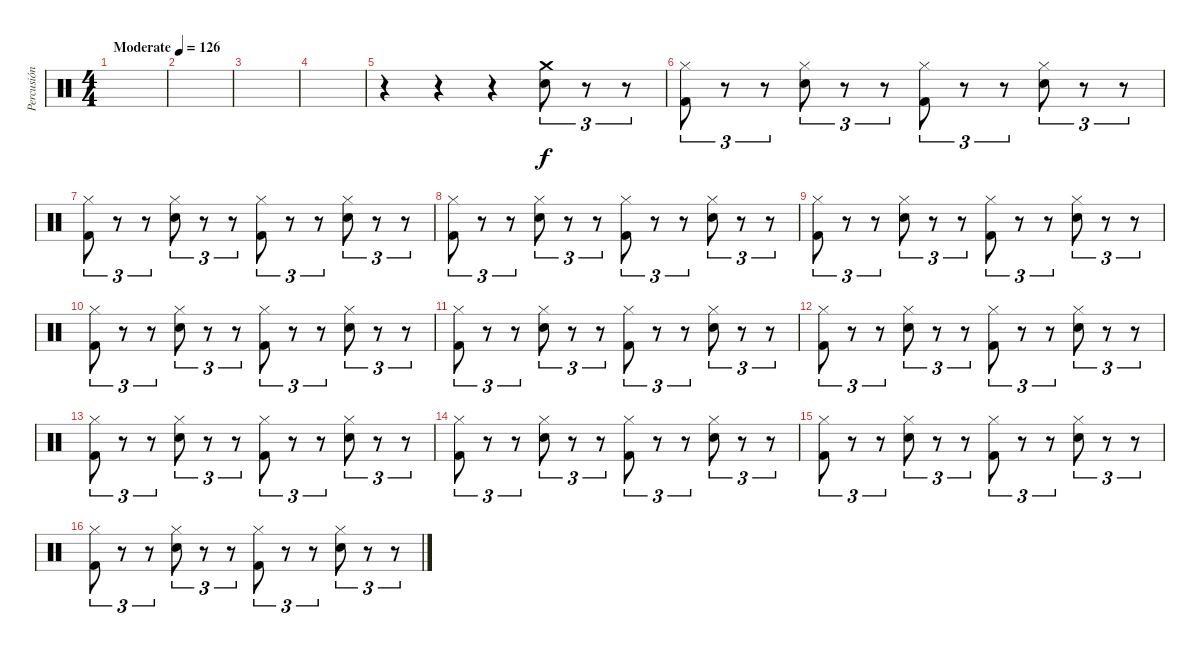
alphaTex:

\track ("Percusión" "Percusión") {instrument percussion}
\staff {score}
\articulation defaults
\ts (4 4)
\tempo (126 "Moderate")
\clef neutral
\ks c
|
|
|
|
r.4 r.4 r.4 ("Electric Snare (hit)" "Crash medium (hit)").8{tu (3 2)} r.8{tu (3 2)} r.8{tu (3 2)} |
("Hi-Hat (closed)" "Kick (hit) 2").8{tu (3 2)} r.8{tu (3 2)} r.8{tu (3 2)} ("Hi-Hat (closed)" "Electric Snare (hit)").8{tu (3 2)} r.8{tu (3 2)} r.8{tu (3 2)} ("Hi-Hat (closed)" "Kick (hit) 2").8{tu (3 2)} r.8{tu (3 2)} r.8{tu (3 2)} ("Hi-Hat (closed)" "Electric Snare (hit)").8{tu (3 2)} r.8{tu (3 2)} r.8{tu (3 2)} |
("Hi-Hat (closed)" "Kick (hit) 2").8{tu (3 2)} r.8{tu (3 2)} r.8{tu (3 2)} ("Hi-Hat (closed)" "Electric Snare (hit)").8{tu (3 2)} r.8{tu (3 2)} r.8{tu (3 2)} ("Hi-Hat (closed)" "Kick (hit) 2").8{tu (3 2)} r.8{tu (3 2)} r.8{tu (3 2)} ("Hi-Hat (closed)" "Electric Snare (hit)").8{tu (3 2)} r.8{tu (3 2)} r.8{tu (3 2)} |
("Hi-Hat (closed)" "Kick (hit) 2").8{tu (3 2)} r.8{tu (3 2)} r.8{tu (3 2)} ("Hi-Hat (closed)" "Electric Snare (hit)").8{tu (3 2)} r.8{tu (3 2)} r.8{tu (3 2)} ("Hi-Hat (closed)" "Kick (hit) 2").8{tu (3 2)} r.8{tu (3 2)} r.8{tu (3 2)} ("Hi-Hat (closed)" "Electric Snare (hit)").8{tu (3 2)} r.8{tu (3 2)} r.8{tu (3 2)} |
("Hi-Hat (closed)" "Kick (hit) 2").8{tu (3 2)} r.8{tu (3 2)} r.8{tu (3 2)} ("Hi-Hat (closed)" "Electric Snare (hit)").8{tu (3 2)} r.8{tu (3 2)} r.8{tu (3 2)} ("Hi-Hat (closed)" "Kick (hit) 2").8{tu (3 2)} r.8{tu (3 2)} r.8{tu (3 2)} ("Hi-Hat (closed)" "Electric Snare (hit)").8{tu (3 2)} r.8{tu (3 2)} r.8{tu (3 2)} |
("Hi-Hat (closed)" "Kick (hit) 2").8{tu (3 2)} r.8{tu (3 2)} r.8{tu (3 2)} ("Hi-Hat (closed)" "Electric Snare (hit)").8{tu (3 2)} r.8{tu (3 2)} r.8{tu (3 2)} ("Hi-Hat (closed)" "Kick (hit) 2").8{tu (3 2)} r.8{tu (3 2)} r.8{tu (3 2)} ("Hi-Hat (closed)" "Electric Snare (hit)").8{tu (3 2)} r.8{tu (3 2)} r.8{tu (3 2)} |
("Hi-Hat (closed)" "Kick (hit) 2").8{tu (3 2)} r.8{tu (3 2)} r.8{tu (3 2)} ("Hi-Hat (closed)" "Electric Snare (hit)").8{tu (3 2)} r.8{tu (3 2)} r.8{tu (3 2)} ("Hi-Hat (closed)" "Kick (hit) 2").8{tu (3 2)} r.8{tu (3 2)} r.8{tu (3 2)} ("Hi-Hat (closed)" "Electric Snare (hit)").8{tu (3 2)} r.8{tu (3 2)} r.8{tu (3 2)} |
("Hi-Hat (closed)" "Kick (hit) 2").8{tu (3 2)} r.8{tu (3 2)} r.8{tu (3 2)} ("Hi-Hat (closed)" "Electric Snare (hit)").8{tu (3 2)} r.8{tu (3 2)} r.8{tu (3 2)} ("Hi-Hat (closed)" "Kick (hit) 2").8{tu (3 2)} r.8{tu (3 2)} r.8{tu (3 2)} ("Hi-Hat (closed)" "Electric Snare (hit)").8{tu (3 2)} r.8{tu (3 2)} r.8{tu (3 2)} |
("Hi-Hat (closed)" "Kick (hit) 2").8{tu (3 2)} r.8{tu (3 2)} r.8{tu (3 2)} ("Hi-Hat (closed)" "Electric Snare (hit)").8{tu (3 2)} r.8{tu (3 2)} r.8{tu (3 2)} ("Hi-Hat (closed)" "Kick (hit) 2").8{tu (3 2)} r.8{tu (3 2)} r.8{tu (3 2)} ("Hi-Hat (closed)" "Electric Snare (hit)").8{tu (3 2)} r.8{tu (3 2)} r.8{tu (3 2)} |
("Hi-Hat (closed)" "Kick (hit) 2").8{tu (3 2)} r.8{tu (3 2)} r.8{tu (3 2)} ("Hi-Hat (closed)" "Electric Snare (hit)").8{tu (3 2)} r.8{tu (3 2)} r.8{tu (3 2)} ("Hi-Hat (closed)" "Kick (hit) 2").8{tu (3 2)} r.8{tu (3 2)} r.8{tu (3 2)} ("Hi-Hat (closed)" "Electric Snare (hit)").8{tu (3 2)} r.8{tu (3 2)} r.8{tu (3 2)} |
("Hi-Hat (closed)" "Kick (hit) 2").8{tu (3 2)} r.8{tu (3 2)} r.8{tu (3 2)} ("Hi-Hat (closed)" "Electric Snare (hit)").8{tu (3 2)} r.8{tu (3 2)} r.8{tu (3 2)} ("Hi-Hat (closed)" "Kick (hit) 2").8{tu (3 2)} r.8{tu (3 2)} r.8{tu (3 2)} ("Hi-Hat (closed)" "Electric Snare (hit)").8{tu (3 2)} r.8{tu (3 2)} r.8{tu (3 2)} |
("Hi-Hat (closed)" "Kick (hit) 2").8{tu (3 2)} r.8{tu (3 2)} r.8{tu (3 2)} ("Hi-Hat (closed)" "Electric Snare (hit)").8{tu (3 2)} r.8{tu (3 2)} r.8{tu (3 2)} ("Hi-Hat (closed)" "Kick (hit) 2").8{tu (3 2)} r.8{tu (3 2)} r.8{tu (3 2)} ("Hi-Hat (closed)" "Electric Snare (hit)").8{tu (3 2)} r.8{tu (3 2)} r.8{tu (3 2)}
